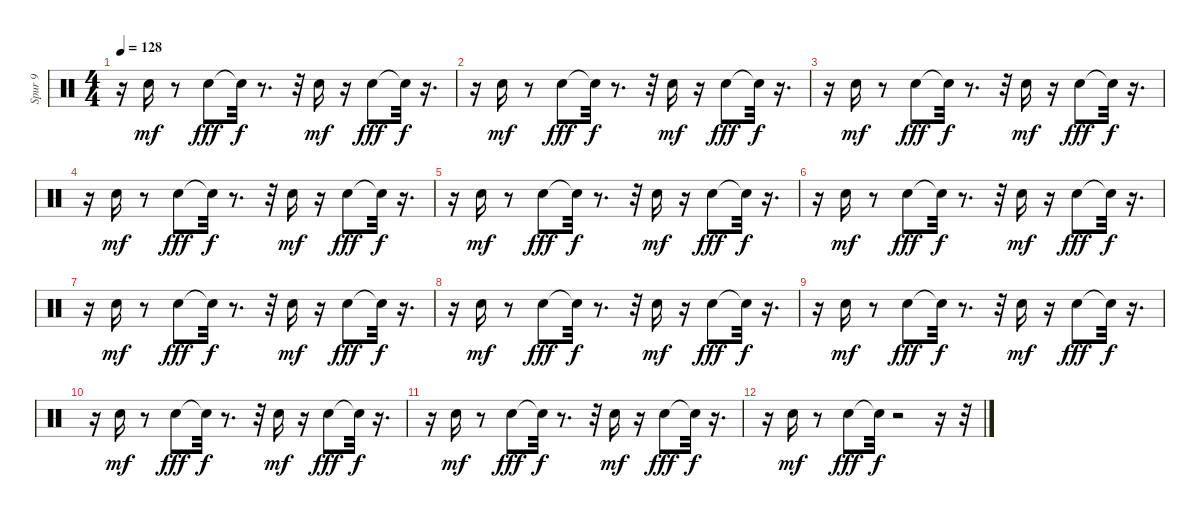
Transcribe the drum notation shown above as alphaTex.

\track ("Spur 9" "Spur 9") {instrument percussion}
\staff {score}
\articulation defaults
\ts (4 4)
\tempo 128
\clef neutral
\ks c
r.16{dy f} "Snare (hit) 2".16{dy mf} r.8 "Electric Snare (hit)".8{dy fff} "Snare (hit)"{t}.32{dy f} r.8{d} r.32 "Snare (hit) 2".16{dy mf} r.16 "Electric Snare (hit)".8{dy fff} "Snare (hit)"{t}.32{dy f} r.16{d} |
r.16 "Snare (hit) 2".16{dy mf} r.8 "Electric Snare (hit)".8{dy fff} "Snare (hit)"{t}.32{dy f} r.8{d} r.32 "Snare (hit) 2".16{dy mf} r.16 "Electric Snare (hit)".8{dy fff} "Snare (hit)"{t}.32{dy f} r.16{d} |
r.16 "Snare (hit) 2".16{dy mf} r.8 "Electric Snare (hit)".8{dy fff} "Snare (hit)"{t}.32{dy f} r.8{d} r.32 "Snare (hit) 2".16{dy mf} r.16 "Electric Snare (hit)".8{dy fff} "Snare (hit)"{t}.32{dy f} r.16{d} |
r.16 "Snare (hit) 2".16{dy mf} r.8 "Electric Snare (hit)".8{dy fff} "Snare (hit)"{t}.32{dy f} r.8{d} r.32 "Snare (hit) 2".16{dy mf} r.16 "Electric Snare (hit)".8{dy fff} "Snare (hit)"{t}.32{dy f} r.16{d} |
r.16 "Snare (hit) 2".16{dy mf} r.8 "Electric Snare (hit)".8{dy fff} "Snare (hit)"{t}.32{dy f} r.8{d} r.32 "Snare (hit) 2".16{dy mf} r.16 "Electric Snare (hit)".8{dy fff} "Snare (hit)"{t}.32{dy f} r.16{d} |
r.16 "Snare (hit) 2".16{dy mf} r.8 "Electric Snare (hit)".8{dy fff} "Snare (hit)"{t}.32{dy f} r.8{d} r.32 "Snare (hit) 2".16{dy mf} r.16 "Electric Snare (hit)".8{dy fff} "Snare (hit)"{t}.32{dy f} r.16{d} |
r.16 "Snare (hit) 2".16{dy mf} r.8 "Electric Snare (hit)".8{dy fff} "Snare (hit)"{t}.32{dy f} r.8{d} r.32 "Snare (hit) 2".16{dy mf} r.16 "Electric Snare (hit)".8{dy fff} "Snare (hit)"{t}.32{dy f} r.16{d} |
r.16 "Snare (hit) 2".16{dy mf} r.8 "Electric Snare (hit)".8{dy fff} "Snare (hit)"{t}.32{dy f} r.8{d} r.32 "Snare (hit) 2".16{dy mf} r.16 "Electric Snare (hit)".8{dy fff} "Snare (hit)"{t}.32{dy f} r.16{d} |
r.16 "Snare (hit) 2".16{dy mf} r.8 "Electric Snare (hit)".8{dy fff} "Snare (hit)"{t}.32{dy f} r.8{d} r.32 "Snare (hit) 2".16{dy mf} r.16 "Electric Snare (hit)".8{dy fff} "Snare (hit)"{t}.32{dy f} r.16{d} |
r.16 "Snare (hit) 2".16{dy mf} r.8 "Electric Snare (hit)".8{dy fff} "Snare (hit)"{t}.32{dy f} r.8{d} r.32 "Snare (hit) 2".16{dy mf} r.16 "Electric Snare (hit)".8{dy fff} "Snare (hit)"{t}.32{dy f} r.16{d} |
r.16 "Snare (hit) 2".16{dy mf} r.8 "Electric Snare (hit)".8{dy fff} "Snare (hit)"{t}.32{dy f} r.8{d} r.32 "Snare (hit) 2".16{dy mf} r.16 "Electric Snare (hit)".8{dy fff} "Snare (hit)"{t}.32{dy f} r.16{d} |
r.16 "Snare (hit) 2".16{dy mf} r.8 "Electric Snare (hit)".8{dy fff} "Snare (hit)"{t}.32{dy f} r.2 r.16 r.32
